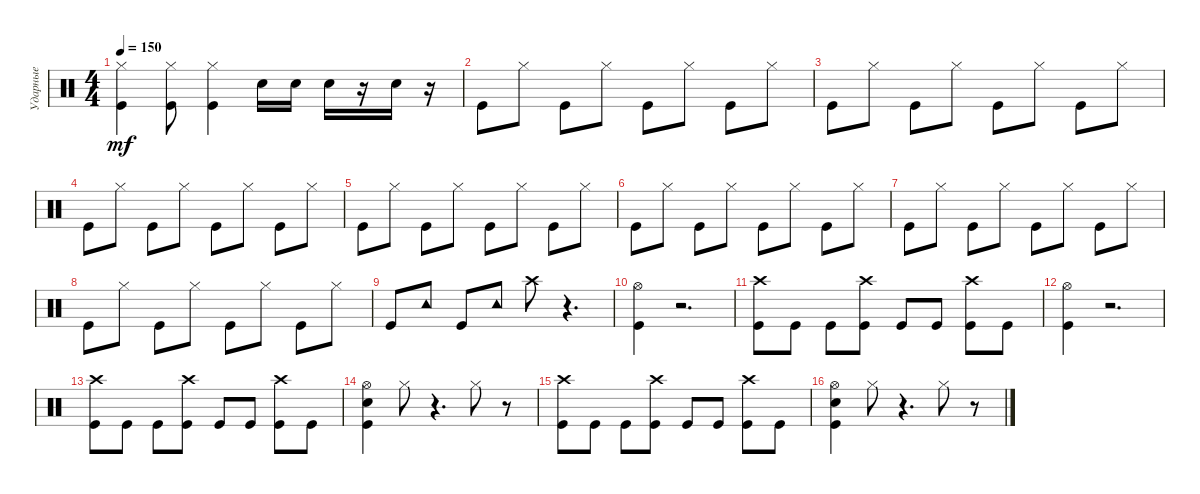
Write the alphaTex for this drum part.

\track ("Ударные" "Ударные") {instrument percussion}
\staff {score}
\articulation defaults
\ts (4 4)
\tempo 150
\clef neutral
\ks c
("Kick (hit)" "Hi-Hat (closed)").4{dy mf} ("Kick (hit)" "Hi-Hat (closed)").8 ("Kick (hit)" "Hi-Hat (closed)").4 "Electric Snare (hit)".16 "Electric Snare (hit)".16 "Electric Snare (hit)".16 r.16 "Electric Snare (hit)".16 r.16 |
"Kick (hit)".8 "Hi-Hat (closed)".8 "Kick (hit)".8 "Hi-Hat (closed)".8 "Kick (hit)".8 "Hi-Hat (closed)".8 "Kick (hit)".8 "Hi-Hat (closed)".8 |
"Kick (hit)".8 "Hi-Hat (closed)".8 "Kick (hit)".8 "Hi-Hat (closed)".8 "Kick (hit)".8 "Hi-Hat (closed)".8 "Kick (hit)".8 "Hi-Hat (closed)".8 |
"Kick (hit)".8 "Hi-Hat (closed)".8 "Kick (hit)".8 "Hi-Hat (closed)".8 "Kick (hit)".8 "Hi-Hat (closed)".8 "Kick (hit)".8 "Hi-Hat (closed)".8 |
"Kick (hit)".8 "Hi-Hat (closed)".8 "Kick (hit)".8 "Hi-Hat (closed)".8 "Kick (hit)".8 "Hi-Hat (closed)".8 "Kick (hit)".8 "Hi-Hat (closed)".8 |
"Kick (hit)".8 "Hi-Hat (closed)".8 "Kick (hit)".8 "Hi-Hat (closed)".8 "Kick (hit)".8 "Hi-Hat (closed)".8 "Kick (hit)".8 "Hi-Hat (closed)".8 |
"Kick (hit)".8 "Hi-Hat (closed)".8 "Kick (hit)".8 "Hi-Hat (closed)".8 "Kick (hit)".8 "Hi-Hat (closed)".8 "Kick (hit)".8 "Hi-Hat (closed)".8 |
"Kick (hit)".8 "Hi-Hat (closed)".8 "Kick (hit)".8 "Hi-Hat (closed)".8 "Kick (hit)".8 "Hi-Hat (closed)".8 "Kick (hit)".8 "Hi-Hat (closed)".8 |
"Kick (hit)".8 "Tambourine (hit)".8 "Kick (hit)".8 "Tambourine (hit)".8 "Crash high (hit)".8 r.4{d} |
("Kick (hit)" "Hi-Hat (open)").4 r.2{d} |
("Kick (hit)" "Crash high (hit)").8 "Kick (hit)".8 "Kick (hit)".8 ("Kick (hit)" "Crash high (hit)").8 "Kick (hit)".8 "Kick (hit)".8 ("Kick (hit)" "Crash high (hit)").8 "Kick (hit)".8 |
("Kick (hit)" "Hi-Hat (open)").4 r.2{d} |
("Kick (hit)" "Crash high (hit)").8 "Kick (hit)".8 "Kick (hit)".8 ("Kick (hit)" "Crash high (hit)").8 "Kick (hit)".8 "Kick (hit)".8 ("Kick (hit)" "Crash high (hit)").8 "Kick (hit)".8 |
("Kick (hit)" "Electric Snare (hit)" "Hi-Hat (open)").4 "Hi-Hat (closed)".8 r.4{d} "Hi-Hat (closed)".8 r.8 |
("Kick (hit)" "Crash high (hit)").8 "Kick (hit)".8 "Kick (hit)".8 ("Kick (hit)" "Crash high (hit)").8 "Kick (hit)".8 "Kick (hit)".8 ("Kick (hit)" "Crash high (hit)").8 "Kick (hit)".8 |
("Kick (hit)" "Electric Snare (hit)" "Hi-Hat (open)").4 "Hi-Hat (closed)".8 r.4{d} "Hi-Hat (closed)".8 r.8
